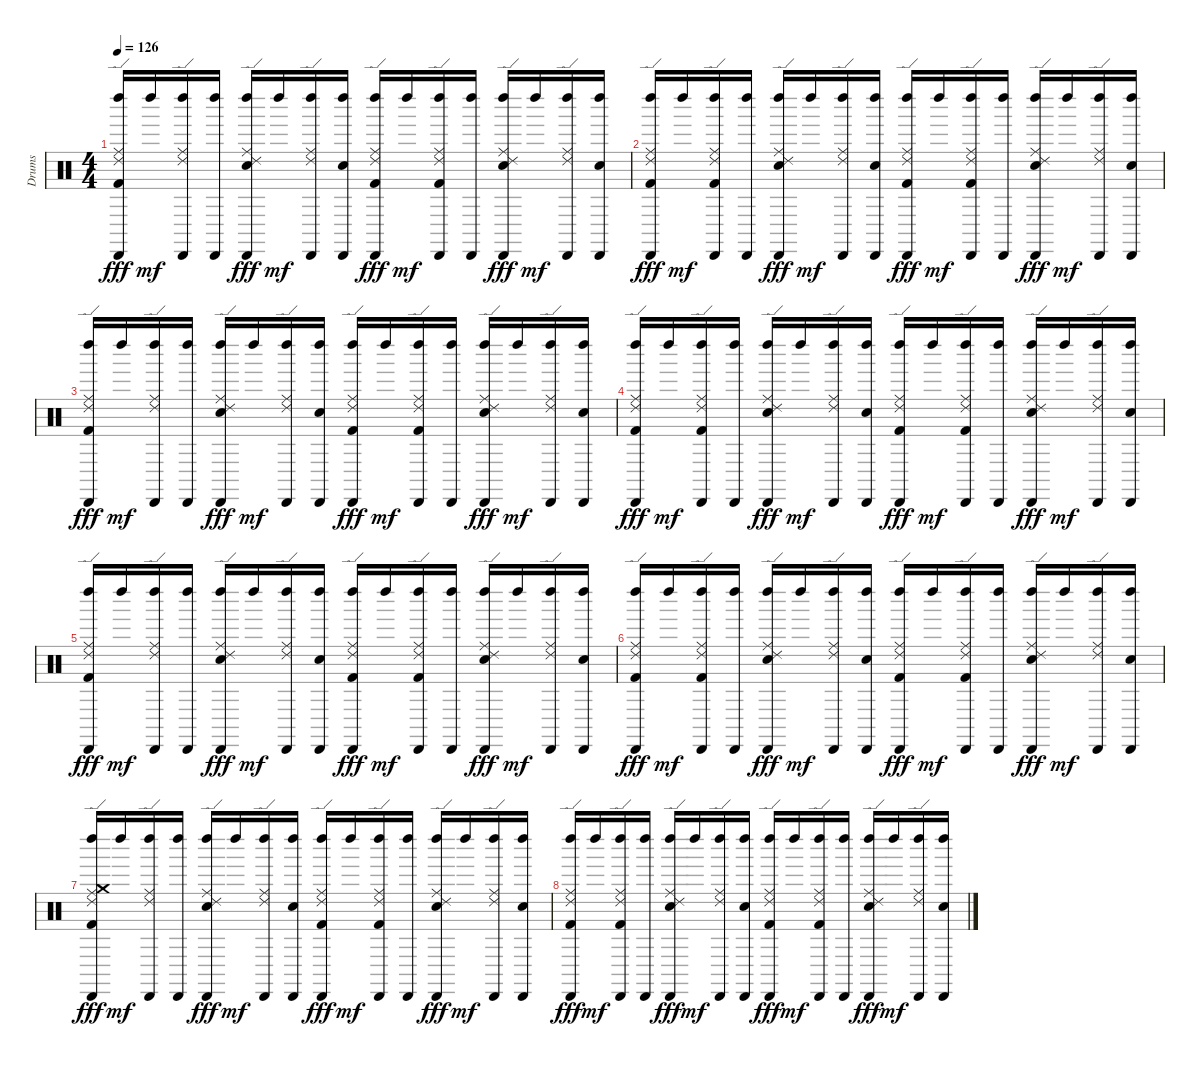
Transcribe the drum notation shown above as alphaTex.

\track ("Drums" "Drums") {instrument percussion}
\staff {score}
\articulation defaults
\ts (4 4)
\tempo 126
\clef neutral
\ks c
("Cabasa (hit)" "Kick (hit) 2" "Left Maraca (hit)" "Ride (middle)" "Ride (edge) 2").16{dy fff} "Left Maraca (hit)".16{dy mf} ("Cabasa (hit)" "Left Maraca (hit)" "Ride (edge) 2" "Ride (middle)").16 ("Cabasa (hit)" "Left Maraca (hit)").16 ("Left Maraca (hit)" "Ride (edge) 2" "Ride (middle)" "Cabasa (hit)" "Electric Snare (hit)").16{dy fff} "Left Maraca (hit)".16{dy mf} ("Ride (edge) 2" "Cabasa (hit)" "Left Maraca (hit)" "Ride (middle)").16 ("Electric Snare (hit)" "Cabasa (hit)" "Left Maraca (hit)").16 ("Kick (hit) 2" "Cabasa (hit)" "Ride (middle)" "Left Maraca (hit)" "Ride (edge) 2").16{dy fff} "Left Maraca (hit)".16{dy mf} ("Cabasa (hit)" "Ride (middle)" "Ride (edge) 2" "Left Maraca (hit)" "Kick (hit) 2").16 ("Left Maraca (hit)" "Cabasa (hit)").16 ("Ride (edge) 2" "Electric Snare (hit)" "Left Maraca (hit)" "Cabasa (hit)" "Ride (middle)").16{dy fff} "Left Maraca (hit)".16{dy mf} ("Left Maraca (hit)" "Cabasa (hit)" "Ride (middle)" "Ride (edge) 2").16 ("Left Maraca (hit)" "Cabasa (hit)" "Electric Snare (hit)").16 |
("Cabasa (hit)" "Kick (hit) 2" "Left Maraca (hit)" "Ride (middle)" "Ride (edge) 2").16{dy fff} "Left Maraca (hit)".16{dy mf} ("Kick (hit) 2" "Cabasa (hit)" "Left Maraca (hit)" "Ride (edge) 2" "Ride (middle)").16 ("Cabasa (hit)" "Left Maraca (hit)").16 ("Left Maraca (hit)" "Ride (edge) 2" "Ride (middle)" "Cabasa (hit)" "Electric Snare (hit)").16{dy fff} "Left Maraca (hit)".16{dy mf} ("Ride (edge) 2" "Cabasa (hit)" "Left Maraca (hit)" "Ride (middle)").16 ("Electric Snare (hit)" "Cabasa (hit)" "Left Maraca (hit)").16 ("Kick (hit) 2" "Cabasa (hit)" "Ride (middle)" "Left Maraca (hit)" "Ride (edge) 2").16{dy fff} "Left Maraca (hit)".16{dy mf} ("Cabasa (hit)" "Ride (middle)" "Ride (edge) 2" "Left Maraca (hit)" "Kick (hit) 2").16 ("Left Maraca (hit)" "Cabasa (hit)").16 ("Ride (edge) 2" "Electric Snare (hit)" "Left Maraca (hit)" "Cabasa (hit)" "Ride (middle)").16{dy fff} "Left Maraca (hit)".16{dy mf} ("Left Maraca (hit)" "Cabasa (hit)" "Ride (middle)" "Ride (edge) 2").16 ("Left Maraca (hit)" "Cabasa (hit)" "Electric Snare (hit)").16 |
("Cabasa (hit)" "Kick (hit) 2" "Left Maraca (hit)" "Ride (middle)" "Ride (edge) 2").16{dy fff} "Left Maraca (hit)".16{dy mf} ("Cabasa (hit)" "Left Maraca (hit)" "Ride (edge) 2" "Ride (middle)").16 ("Cabasa (hit)" "Left Maraca (hit)").16 ("Left Maraca (hit)" "Ride (edge) 2" "Ride (middle)" "Cabasa (hit)" "Electric Snare (hit)").16{dy fff} "Left Maraca (hit)".16{dy mf} ("Ride (edge) 2" "Cabasa (hit)" "Left Maraca (hit)" "Ride (middle)").16 ("Electric Snare (hit)" "Cabasa (hit)" "Left Maraca (hit)").16 ("Kick (hit) 2" "Cabasa (hit)" "Ride (middle)" "Left Maraca (hit)" "Ride (edge) 2").16{dy fff} "Left Maraca (hit)".16{dy mf} ("Cabasa (hit)" "Ride (middle)" "Ride (edge) 2" "Left Maraca (hit)" "Kick (hit) 2").16 ("Left Maraca (hit)" "Cabasa (hit)").16 ("Ride (edge) 2" "Electric Snare (hit)" "Left Maraca (hit)" "Cabasa (hit)" "Ride (middle)").16{dy fff} "Left Maraca (hit)".16{dy mf} ("Left Maraca (hit)" "Cabasa (hit)" "Ride (middle)" "Ride (edge) 2").16 ("Left Maraca (hit)" "Cabasa (hit)" "Electric Snare (hit)").16 |
("Cabasa (hit)" "Kick (hit) 2" "Left Maraca (hit)" "Ride (middle)" "Ride (edge) 2").16{dy fff} "Left Maraca (hit)".16{dy mf} ("Kick (hit) 2" "Cabasa (hit)" "Left Maraca (hit)" "Ride (edge) 2" "Ride (middle)").16 ("Cabasa (hit)" "Left Maraca (hit)").16 ("Left Maraca (hit)" "Ride (edge) 2" "Ride (middle)" "Cabasa (hit)" "Electric Snare (hit)").16{dy fff} "Left Maraca (hit)".16{dy mf} ("Ride (edge) 2" "Cabasa (hit)" "Left Maraca (hit)" "Ride (middle)").16 ("Electric Snare (hit)" "Cabasa (hit)" "Left Maraca (hit)").16 ("Kick (hit) 2" "Cabasa (hit)" "Ride (middle)" "Left Maraca (hit)" "Ride (edge) 2").16{dy fff} "Left Maraca (hit)".16{dy mf} ("Cabasa (hit)" "Ride (middle)" "Ride (edge) 2" "Left Maraca (hit)" "Kick (hit) 2").16 ("Left Maraca (hit)" "Cabasa (hit)").16 ("Ride (edge) 2" "Electric Snare (hit)" "Left Maraca (hit)" "Cabasa (hit)" "Ride (middle)").16{dy fff} "Left Maraca (hit)".16{dy mf} ("Left Maraca (hit)" "Cabasa (hit)" "Ride (middle)" "Ride (edge) 2").16 ("Left Maraca (hit)" "Cabasa (hit)" "Electric Snare (hit)").16 |
("Cabasa (hit)" "Kick (hit) 2" "Left Maraca (hit)" "Ride (middle)" "Ride (edge) 2").16{dy fff} "Left Maraca (hit)".16{dy mf} ("Cabasa (hit)" "Left Maraca (hit)" "Ride (edge) 2" "Ride (middle)").16 ("Cabasa (hit)" "Left Maraca (hit)").16 ("Left Maraca (hit)" "Ride (edge) 2" "Ride (middle)" "Cabasa (hit)" "Electric Snare (hit)").16{dy fff} "Left Maraca (hit)".16{dy mf} ("Ride (edge) 2" "Cabasa (hit)" "Left Maraca (hit)" "Ride (middle)").16 ("Electric Snare (hit)" "Cabasa (hit)" "Left Maraca (hit)").16 ("Kick (hit) 2" "Cabasa (hit)" "Ride (middle)" "Left Maraca (hit)" "Ride (edge) 2").16{dy fff} "Left Maraca (hit)".16{dy mf} ("Cabasa (hit)" "Ride (middle)" "Ride (edge) 2" "Left Maraca (hit)" "Kick (hit) 2").16 ("Left Maraca (hit)" "Cabasa (hit)").16 ("Ride (edge) 2" "Electric Snare (hit)" "Left Maraca (hit)" "Cabasa (hit)" "Ride (middle)").16{dy fff} "Left Maraca (hit)".16{dy mf} ("Left Maraca (hit)" "Cabasa (hit)" "Ride (middle)" "Ride (edge) 2").16 ("Left Maraca (hit)" "Cabasa (hit)" "Electric Snare (hit)").16 |
("Cabasa (hit)" "Kick (hit) 2" "Left Maraca (hit)" "Ride (middle)" "Ride (edge) 2").16{dy fff} "Left Maraca (hit)".16{dy mf} ("Kick (hit) 2" "Cabasa (hit)" "Left Maraca (hit)" "Ride (edge) 2" "Ride (middle)").16 ("Cabasa (hit)" "Left Maraca (hit)").16 ("Left Maraca (hit)" "Ride (edge) 2" "Ride (middle)" "Cabasa (hit)" "Electric Snare (hit)").16{dy fff} "Left Maraca (hit)".16{dy mf} ("Ride (edge) 2" "Cabasa (hit)" "Left Maraca (hit)" "Ride (middle)").16 ("Electric Snare (hit)" "Cabasa (hit)" "Left Maraca (hit)").16 ("Kick (hit) 2" "Cabasa (hit)" "Ride (middle)" "Left Maraca (hit)" "Ride (edge) 2").16{dy fff} "Left Maraca (hit)".16{dy mf} ("Cabasa (hit)" "Ride (middle)" "Ride (edge) 2" "Left Maraca (hit)" "Kick (hit) 2").16 ("Left Maraca (hit)" "Cabasa (hit)").16 ("Ride (edge) 2" "Electric Snare (hit)" "Left Maraca (hit)" "Cabasa (hit)" "Ride (middle)").16{dy fff} "Left Maraca (hit)".16{dy mf} ("Left Maraca (hit)" "Cabasa (hit)" "Ride (middle)" "Ride (edge) 2").16 ("Left Maraca (hit)" "Cabasa (hit)" "Electric Snare (hit)").16 |
("Crash medium (hit)" "Cabasa (hit)" "Kick (hit) 2" "Left Maraca (hit)" "Ride (middle)" "Ride (edge) 2").16{dy fff} "Left Maraca (hit)".16{dy mf} ("Cabasa (hit)" "Left Maraca (hit)" "Ride (edge) 2" "Ride (middle)").16 ("Cabasa (hit)" "Left Maraca (hit)").16 ("Left Maraca (hit)" "Ride (edge) 2" "Ride (middle)" "Cabasa (hit)" "Electric Snare (hit)").16{dy fff} "Left Maraca (hit)".16{dy mf} ("Ride (edge) 2" "Cabasa (hit)" "Left Maraca (hit)" "Ride (middle)").16 ("Electric Snare (hit)" "Cabasa (hit)" "Left Maraca (hit)").16 ("Kick (hit) 2" "Cabasa (hit)" "Ride (middle)" "Left Maraca (hit)" "Ride (edge) 2").16{dy fff} "Left Maraca (hit)".16{dy mf} ("Cabasa (hit)" "Ride (middle)" "Ride (edge) 2" "Left Maraca (hit)" "Kick (hit) 2").16 ("Left Maraca (hit)" "Cabasa (hit)").16 ("Ride (edge) 2" "Electric Snare (hit)" "Left Maraca (hit)" "Cabasa (hit)" "Ride (middle)").16{dy fff} "Left Maraca (hit)".16{dy mf} ("Left Maraca (hit)" "Cabasa (hit)" "Ride (middle)" "Ride (edge) 2").16 ("Left Maraca (hit)" "Cabasa (hit)" "Electric Snare (hit)").16 |
("Cabasa (hit)" "Kick (hit) 2" "Left Maraca (hit)" "Ride (middle)" "Ride (edge) 2").16{dy fff} "Left Maraca (hit)".16{dy mf} ("Kick (hit) 2" "Cabasa (hit)" "Left Maraca (hit)" "Ride (edge) 2" "Ride (middle)").16 ("Cabasa (hit)" "Left Maraca (hit)").16 ("Left Maraca (hit)" "Ride (edge) 2" "Ride (middle)" "Cabasa (hit)" "Electric Snare (hit)").16{dy fff} "Left Maraca (hit)".16{dy mf} ("Ride (edge) 2" "Cabasa (hit)" "Left Maraca (hit)" "Ride (middle)").16 ("Electric Snare (hit)" "Cabasa (hit)" "Left Maraca (hit)").16 ("Kick (hit) 2" "Cabasa (hit)" "Ride (middle)" "Left Maraca (hit)" "Ride (edge) 2").16{dy fff} "Left Maraca (hit)".16{dy mf} ("Cabasa (hit)" "Ride (middle)" "Ride (edge) 2" "Left Maraca (hit)" "Kick (hit) 2").16 ("Left Maraca (hit)" "Cabasa (hit)").16 ("Ride (edge) 2" "Electric Snare (hit)" "Left Maraca (hit)" "Cabasa (hit)" "Ride (middle)").16{dy fff} "Left Maraca (hit)".16{dy mf} ("Left Maraca (hit)" "Cabasa (hit)" "Ride (middle)" "Ride (edge) 2").16 ("Left Maraca (hit)" "Cabasa (hit)" "Electric Snare (hit)").16
